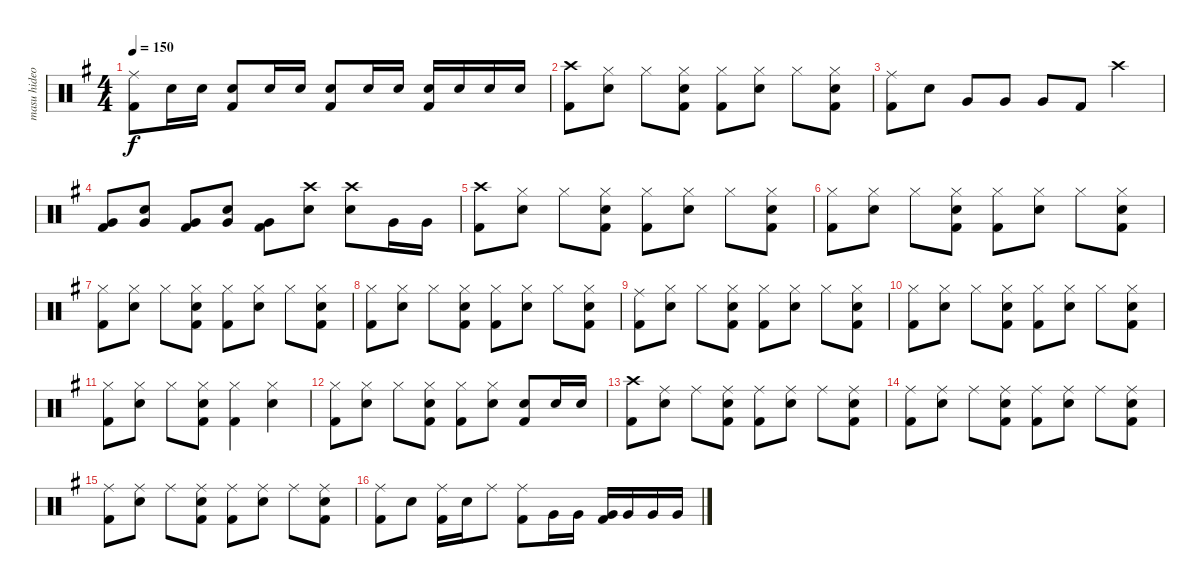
\track ("masu hideo - drum" "masu hideo") {instrument percussion}
\staff {score}
\articulation defaults
\ts (4 4)
\tempo 150
\clef neutral
\ks g
("Ride (middle)" "Kick (hit) 2").8{dy f} "Electric Snare (hit)".16 "Electric Snare (hit)".16 ("Electric Snare (hit)" "Kick (hit) 2").8 "Electric Snare (hit)".16 "Electric Snare (hit)".16 ("Electric Snare (hit)" "Kick (hit) 2").8 "Electric Snare (hit)".16 "Electric Snare (hit)".16 ("Electric Snare (hit)" "Kick (hit) 2").16 "Electric Snare (hit)".16 "Electric Snare (hit)".16 "Electric Snare (hit)".16 |
("Crash high (hit)" "Kick (hit) 2").8 ("Hi-Hat (closed)" "Electric Snare (hit)").8 "Hi-Hat (closed)".8 ("Hi-Hat (closed)" "Electric Snare (hit)" "Kick (hit) 2").8 ("Hi-Hat (closed)" "Kick (hit) 2").8 ("Hi-Hat (closed)" "Electric Snare (hit)").8 "Hi-Hat (closed)".8 ("Hi-Hat (closed)" "Electric Snare (hit)" "Kick (hit) 2").8 |
("Ride (middle)" "Kick (hit) 2").8 "Electric Snare (hit)".8 "Very Low Tom (hit)".8 "Very Low Tom (hit)".8 "Very Low Tom (hit)".8 "Kick (hit) 2".8 "Crash high (hit)".4 |
("Very Low Tom (hit)" "Kick (hit) 2").8 ("Electric Snare (hit)" "Very Low Tom (hit)").8 ("Very Low Tom (hit)" "Kick (hit) 2").8 ("Electric Snare (hit)" "Very Low Tom (hit)").8 ("Very Low Tom (hit)" "Kick (hit) 2").8 ("Crash high (hit)" "Electric Snare (hit)").8 ("Crash high (hit)" "Electric Snare (hit)").8 "Very Low Tom (hit)".16 "Very Low Tom (hit)".16 |
("Crash high (hit)" "Kick (hit) 2").8 ("Hi-Hat (closed)" "Electric Snare (hit)").8 "Hi-Hat (closed)".8 ("Hi-Hat (closed)" "Electric Snare (hit)" "Kick (hit) 2").8 ("Hi-Hat (closed)" "Kick (hit) 2").8 ("Hi-Hat (closed)" "Electric Snare (hit)").8 "Hi-Hat (closed)".8 ("Hi-Hat (closed)" "Electric Snare (hit)" "Kick (hit) 2").8 |
("Hi-Hat (closed)" "Kick (hit) 2").8 ("Hi-Hat (closed)" "Electric Snare (hit)").8 "Hi-Hat (closed)".8 ("Hi-Hat (closed)" "Electric Snare (hit)" "Kick (hit) 2").8 ("Hi-Hat (closed)" "Kick (hit) 2").8 ("Hi-Hat (closed)" "Electric Snare (hit)").8 "Hi-Hat (closed)".8 ("Hi-Hat (closed)" "Electric Snare (hit)" "Kick (hit) 2").8 |
("Hi-Hat (closed)" "Kick (hit) 2").8 ("Hi-Hat (closed)" "Electric Snare (hit)").8 "Hi-Hat (closed)".8 ("Hi-Hat (closed)" "Electric Snare (hit)" "Kick (hit) 2").8 ("Hi-Hat (closed)" "Kick (hit) 2").8 ("Hi-Hat (closed)" "Electric Snare (hit)").8 "Hi-Hat (closed)".8 ("Hi-Hat (closed)" "Electric Snare (hit)" "Kick (hit) 2").8 |
("Hi-Hat (closed)" "Kick (hit) 2").8 ("Hi-Hat (closed)" "Electric Snare (hit)").8 "Hi-Hat (closed)".8 ("Hi-Hat (closed)" "Electric Snare (hit)" "Kick (hit) 2").8 ("Hi-Hat (closed)" "Kick (hit) 2").8 ("Hi-Hat (closed)" "Electric Snare (hit)").8 "Hi-Hat (closed)".8 ("Hi-Hat (closed)" "Electric Snare (hit)" "Kick (hit) 2").8 |
("Ride (middle)" "Kick (hit) 2").8 ("Hi-Hat (closed)" "Electric Snare (hit)").8 "Hi-Hat (closed)".8 ("Hi-Hat (closed)" "Electric Snare (hit)" "Kick (hit) 2").8 ("Hi-Hat (closed)" "Kick (hit) 2").8 ("Hi-Hat (closed)" "Electric Snare (hit)").8 "Hi-Hat (closed)".8 ("Hi-Hat (closed)" "Electric Snare (hit)" "Kick (hit) 2").8 |
("Hi-Hat (closed)" "Kick (hit) 2").8 ("Hi-Hat (closed)" "Electric Snare (hit)").8 "Hi-Hat (closed)".8 ("Hi-Hat (closed)" "Electric Snare (hit)" "Kick (hit) 2").8 ("Hi-Hat (closed)" "Kick (hit) 2").8 ("Hi-Hat (closed)" "Electric Snare (hit)").8 "Hi-Hat (closed)".8 ("Hi-Hat (closed)" "Electric Snare (hit)" "Kick (hit) 2").8 |
("Hi-Hat (closed)" "Kick (hit) 2").8 ("Hi-Hat (closed)" "Electric Snare (hit)").8 "Hi-Hat (closed)".8 ("Hi-Hat (closed)" "Electric Snare (hit)" "Kick (hit) 2").8 ("Hi-Hat (closed)" "Kick (hit) 2").4 ("Hi-Hat (closed)" "Electric Snare (hit)").4 |
("Hi-Hat (closed)" "Kick (hit) 2").8 ("Hi-Hat (closed)" "Electric Snare (hit)").8 "Hi-Hat (closed)".8 ("Hi-Hat (closed)" "Electric Snare (hit)" "Kick (hit) 2").8 ("Hi-Hat (closed)" "Kick (hit) 2").8 ("Hi-Hat (closed)" "Electric Snare (hit)").8 ("Electric Snare (hit)" "Kick (hit) 2").8 "Electric Snare (hit)".16 "Electric Snare (hit)".16 |
("Crash high (hit)" "Kick (hit) 2").8 ("Ride (middle)" "Electric Snare (hit)").8 "Ride (middle)".8 ("Ride (middle)" "Electric Snare (hit)" "Kick (hit) 2").8 ("Ride (middle)" "Kick (hit) 2").8 ("Ride (middle)" "Electric Snare (hit)").8 "Ride (middle)".8 ("Ride (middle)" "Electric Snare (hit)" "Kick (hit) 2").8 |
("Ride (middle)" "Kick (hit) 2").8 ("Ride (middle)" "Electric Snare (hit)").8 "Ride (middle)".8 ("Ride (middle)" "Electric Snare (hit)" "Kick (hit) 2").8 ("Ride (middle)" "Kick (hit) 2").8 ("Ride (middle)" "Electric Snare (hit)").8 "Ride (middle)".8 ("Ride (middle)" "Electric Snare (hit)" "Kick (hit) 2").8 |
("Ride (middle)" "Kick (hit) 2").8 ("Ride (middle)" "Electric Snare (hit)").8 "Ride (middle)".8 ("Ride (middle)" "Electric Snare (hit)" "Kick (hit) 2").8 ("Ride (middle)" "Kick (hit) 2").8 ("Ride (middle)" "Electric Snare (hit)").8 "Ride (middle)".8 ("Ride (middle)" "Electric Snare (hit)" "Kick (hit) 2").8 |
("Ride (middle)" "Kick (hit) 2").8 "Electric Snare (hit)".8 ("Ride (middle)" "Kick (hit) 2").16 "Electric Snare (hit)".16 "Ride (middle)".8 ("Ride (middle)" "Kick (hit) 2").8 "Very Low Tom (hit)".16 "Very Low Tom (hit)".16 ("Very Low Tom (hit)" "Kick (hit) 2").16 "Very Low Tom (hit)".16 "Very Low Tom (hit)".16 "Very Low Tom (hit)".16
